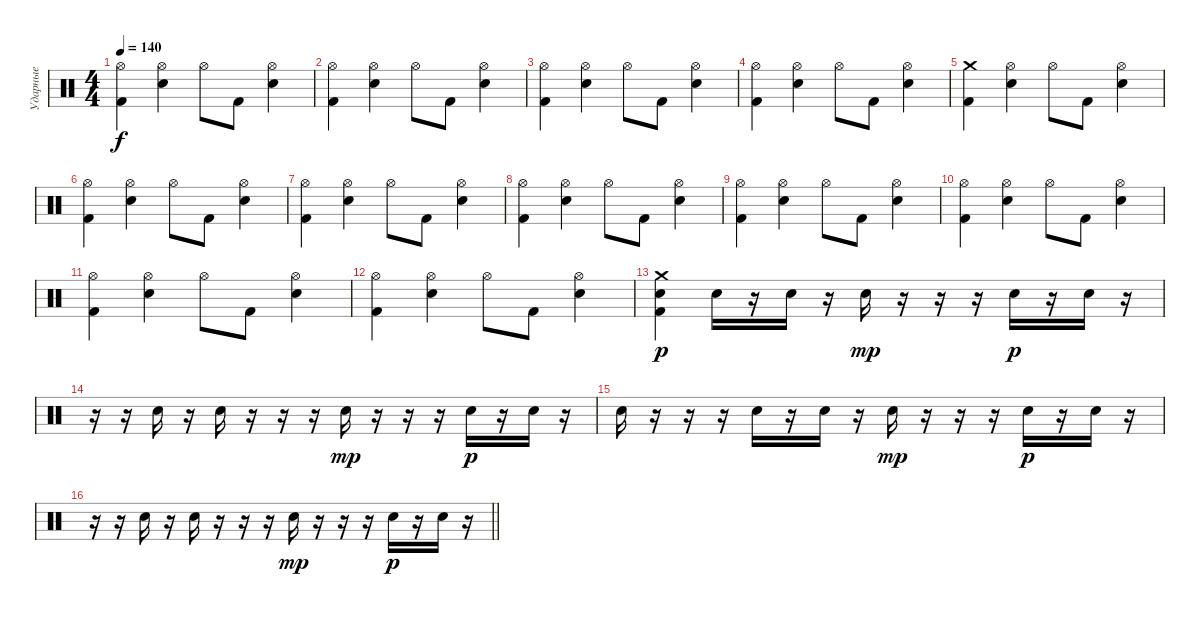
\track ("Ударные" "Ударные") {instrument percussion}
\staff {score}
\articulation defaults
\ts (4 4)
\tempo 140
\clef neutral
\ks c
("Hi-Hat (open)" "Kick (hit) 2").4{dy f} ("Hi-Hat (open)" "Electric Snare (hit)").4 "Hi-Hat (open)".8 "Kick (hit) 2".8 ("Hi-Hat (open)" "Electric Snare (hit)").4 |
("Hi-Hat (open)" "Kick (hit) 2").4 ("Hi-Hat (open)" "Electric Snare (hit)").4 "Hi-Hat (open)".8 "Kick (hit) 2".8 ("Hi-Hat (open)" "Electric Snare (hit)").4 |
("Hi-Hat (open)" "Kick (hit) 2").4 ("Hi-Hat (open)" "Electric Snare (hit)").4 "Hi-Hat (open)".8 "Kick (hit) 2".8 ("Hi-Hat (open)" "Electric Snare (hit)").4 |
("Hi-Hat (open)" "Kick (hit) 2").4 ("Hi-Hat (open)" "Electric Snare (hit)").4 "Hi-Hat (open)".8 "Kick (hit) 2".8 ("Hi-Hat (open)" "Electric Snare (hit)").4 |
("Crash medium (hit)" "Kick (hit) 2").4 ("Hi-Hat (open)" "Electric Snare (hit)").4 "Hi-Hat (open)".8 "Kick (hit) 2".8 ("Hi-Hat (open)" "Electric Snare (hit)").4 |
("Hi-Hat (open)" "Kick (hit) 2").4 ("Hi-Hat (open)" "Electric Snare (hit)").4 "Hi-Hat (open)".8 "Kick (hit) 2".8 ("Hi-Hat (open)" "Electric Snare (hit)").4 |
("Hi-Hat (open)" "Kick (hit) 2").4 ("Hi-Hat (open)" "Electric Snare (hit)").4 "Hi-Hat (open)".8 "Kick (hit) 2".8 ("Hi-Hat (open)" "Electric Snare (hit)").4 |
("Hi-Hat (open)" "Kick (hit) 2").4 ("Hi-Hat (open)" "Electric Snare (hit)").4 "Hi-Hat (open)".8 "Kick (hit) 2".8 ("Hi-Hat (open)" "Electric Snare (hit)").4 |
("Hi-Hat (open)" "Kick (hit) 2").4 ("Hi-Hat (open)" "Electric Snare (hit)").4 "Hi-Hat (open)".8 "Kick (hit) 2".8 ("Hi-Hat (open)" "Electric Snare (hit)").4 |
("Hi-Hat (open)" "Kick (hit) 2").4 ("Hi-Hat (open)" "Electric Snare (hit)").4 "Hi-Hat (open)".8 "Kick (hit) 2".8 ("Hi-Hat (open)" "Electric Snare (hit)").4 |
("Hi-Hat (open)" "Kick (hit) 2").4 ("Hi-Hat (open)" "Electric Snare (hit)").4 "Hi-Hat (open)".8 "Kick (hit) 2".8 ("Hi-Hat (open)" "Electric Snare (hit)").4 |
("Hi-Hat (open)" "Kick (hit) 2").4 ("Hi-Hat (open)" "Electric Snare (hit)").4 "Hi-Hat (open)".8 "Kick (hit) 2".8 ("Hi-Hat (open)" "Electric Snare (hit)").4 |
("Crash medium (hit)" "Electric Snare (hit)" "Kick (hit) 2").4{dy p} "Electric Snare (hit)".16 r.16 "Electric Snare (hit)".16 r.16 "Electric Snare (hit)".16{dy mp} r.16 r.16 r.16 "Electric Snare (hit)".16{dy p} r.16 "Electric Snare (hit)".16 r.16 |
r.16 r.16 "Electric Snare (hit)".16 r.16 "Electric Snare (hit)".16 r.16 r.16 r.16 "Electric Snare (hit)".16{dy mp} r.16 r.16 r.16 "Electric Snare (hit)".16{dy p} r.16 "Electric Snare (hit)".16 r.16 |
"Electric Snare (hit)".16 r.16 r.16 r.16 "Electric Snare (hit)".16 r.16 "Electric Snare (hit)".16 r.16 "Electric Snare (hit)".16{dy mp} r.16 r.16 r.16 "Electric Snare (hit)".16{dy p} r.16 "Electric Snare (hit)".16 r.16 |
\barLineRight lightlight
r.16 r.16 "Electric Snare (hit)".16 r.16 "Electric Snare (hit)".16 r.16 r.16 r.16 "Electric Snare (hit)".16{dy mp} r.16 r.16 r.16 "Electric Snare (hit)".16{dy p} r.16 "Electric Snare (hit)".16 r.16
